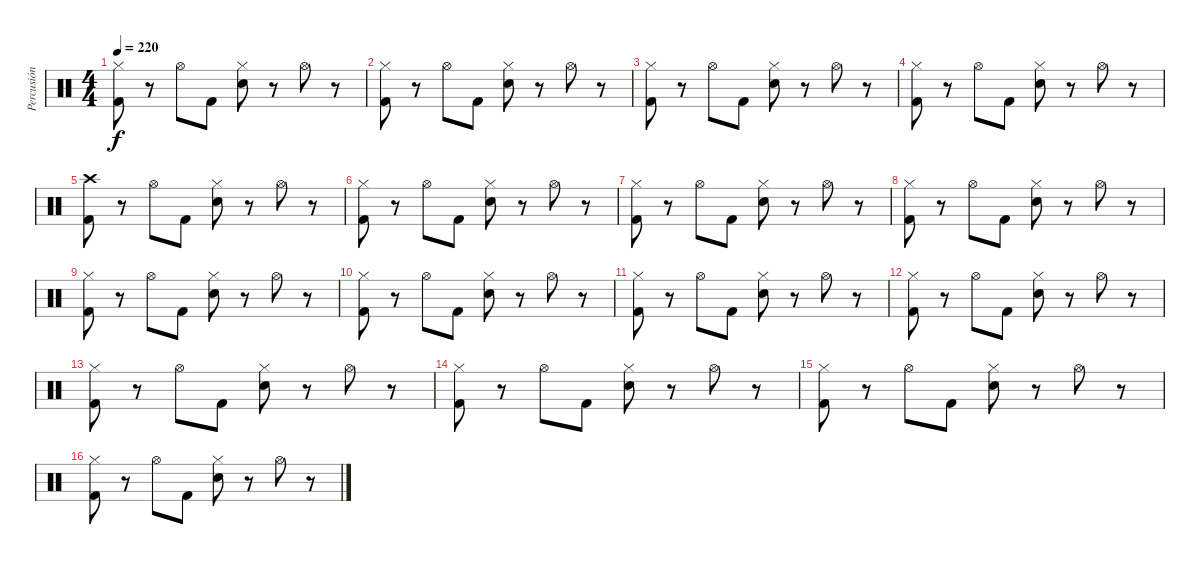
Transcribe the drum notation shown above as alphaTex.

\track ("Percusión" "Percusión") {instrument percussion}
\staff {score}
\articulation defaults
\ts (4 4)
\tempo 220
\clef neutral
\ks c
("Hi-Hat (closed)" "Kick (hit) 2").8{dy f} r.8 "Hi-Hat (open)".8 "Kick (hit) 2".8 ("Hi-Hat (closed)" "Snare (hit) 2").8 r.8 "Hi-Hat (open)".8 r.8 |
("Hi-Hat (closed)" "Kick (hit) 2").8 r.8 "Hi-Hat (open)".8 "Kick (hit) 2".8 ("Hi-Hat (closed)" "Snare (hit) 2").8 r.8 "Hi-Hat (open)".8 r.8 |
("Hi-Hat (closed)" "Kick (hit) 2").8 r.8 "Hi-Hat (open)".8 "Kick (hit) 2".8 ("Hi-Hat (closed)" "Snare (hit) 2").8 r.8 "Hi-Hat (open)".8 r.8 |
("Hi-Hat (closed)" "Kick (hit) 2").8 r.8 "Hi-Hat (open)".8 "Kick (hit) 2".8 ("Hi-Hat (closed)" "Snare (hit) 2").8 r.8 "Hi-Hat (open)".8 r.8 |
("Crash high (hit)" "Kick (hit) 2").8 r.8 "Hi-Hat (open)".8 "Kick (hit) 2".8 ("Hi-Hat (closed)" "Snare (hit) 2").8 r.8 "Hi-Hat (open)".8 r.8 |
("Hi-Hat (closed)" "Kick (hit) 2").8 r.8 "Hi-Hat (open)".8 "Kick (hit) 2".8 ("Hi-Hat (closed)" "Snare (hit) 2").8 r.8 "Hi-Hat (open)".8 r.8 |
("Hi-Hat (closed)" "Kick (hit) 2").8 r.8 "Hi-Hat (open)".8 "Kick (hit) 2".8 ("Hi-Hat (closed)" "Snare (hit) 2").8 r.8 "Hi-Hat (open)".8 r.8 |
("Hi-Hat (closed)" "Kick (hit) 2").8 r.8 "Hi-Hat (open)".8 "Kick (hit) 2".8 ("Hi-Hat (closed)" "Snare (hit) 2").8 r.8 "Hi-Hat (open)".8 r.8 |
("Hi-Hat (closed)" "Kick (hit) 2").8 r.8 "Hi-Hat (open)".8 "Kick (hit) 2".8 ("Hi-Hat (closed)" "Snare (hit) 2").8 r.8 "Hi-Hat (open)".8 r.8 |
("Hi-Hat (closed)" "Kick (hit) 2").8 r.8 "Hi-Hat (open)".8 "Kick (hit) 2".8 ("Hi-Hat (closed)" "Snare (hit) 2").8 r.8 "Hi-Hat (open)".8 r.8 |
("Hi-Hat (closed)" "Kick (hit) 2").8 r.8 "Hi-Hat (open)".8 "Kick (hit) 2".8 ("Hi-Hat (closed)" "Snare (hit) 2").8 r.8 "Hi-Hat (open)".8 r.8 |
("Hi-Hat (closed)" "Kick (hit) 2").8 r.8 "Hi-Hat (open)".8 "Kick (hit) 2".8 ("Hi-Hat (closed)" "Snare (hit) 2").8 r.8 "Hi-Hat (open)".8 r.8 |
("Hi-Hat (closed)" "Kick (hit) 2").8 r.8 "Hi-Hat (open)".8 "Kick (hit) 2".8 ("Hi-Hat (closed)" "Snare (hit) 2").8 r.8 "Hi-Hat (open)".8 r.8 |
("Hi-Hat (closed)" "Kick (hit) 2").8 r.8 "Hi-Hat (open)".8 "Kick (hit) 2".8 ("Hi-Hat (closed)" "Snare (hit) 2").8 r.8 "Hi-Hat (open)".8 r.8 |
("Hi-Hat (closed)" "Kick (hit) 2").8 r.8 "Hi-Hat (open)".8 "Kick (hit) 2".8 ("Hi-Hat (closed)" "Snare (hit) 2").8 r.8 "Hi-Hat (open)".8 r.8 |
("Hi-Hat (closed)" "Kick (hit) 2").8 r.8 "Hi-Hat (open)".8 "Kick (hit) 2".8 ("Hi-Hat (closed)" "Snare (hit) 2").8 r.8 "Hi-Hat (open)".8 r.8
